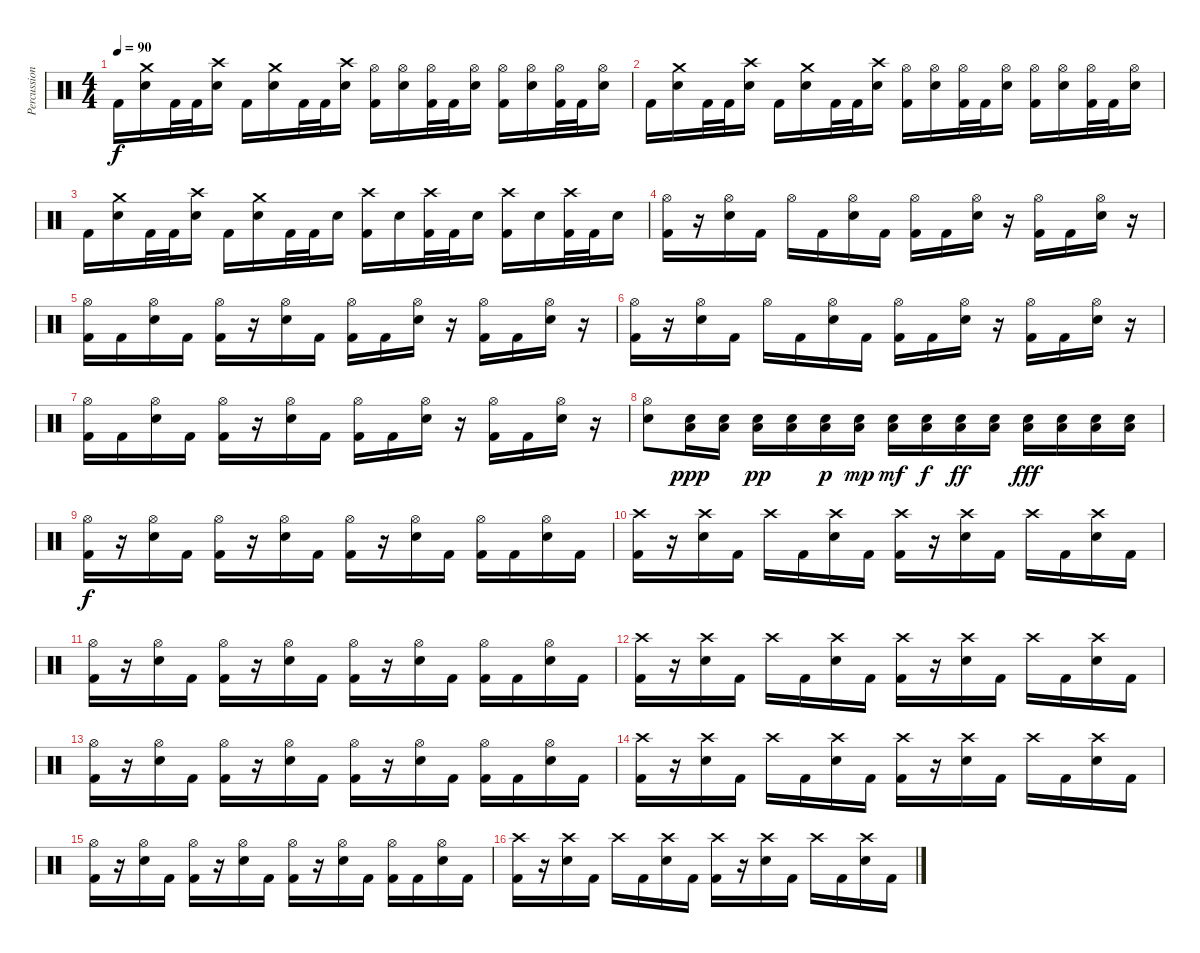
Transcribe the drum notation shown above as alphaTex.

\track ("Percussion" "Percussion") {instrument percussion}
\staff {score}
\articulation defaults
\ts (4 4)
\tempo 90
\clef neutral
\ks c "Kick (hit) 2".16{dy f}
("Crash medium (hit)" "Snare (hit) 2").16 "Kick (hit) 2".32 "Kick (hit) 2".32 ("Crash high (hit)" "Snare (hit) 2").16 "Kick (hit) 2".16 ("Crash medium (hit)" "Snare (hit) 2").16 "Kick (hit) 2".32 "Kick (hit) 2".32 ("Crash high (hit)" "Snare (hit) 2").16 ("Hi-Hat (open)" "Kick (hit) 2").16 ("Hi-Hat (open)" "Snare (hit) 2").16 ("Hi-Hat (open)" "Kick (hit) 2").32 "Kick (hit) 2".32 ("Hi-Hat (open)" "Snare (hit) 2").16 ("Hi-Hat (open)" "Kick (hit) 2").16 ("Hi-Hat (open)" "Snare (hit) 2").16 ("Hi-Hat (open)" "Kick (hit) 2").32 "Kick (hit) 2".32 ("Hi-Hat (open)" "Snare (hit) 2").16 |
"Kick (hit) 2".16 ("Crash medium (hit)" "Snare (hit) 2").16 "Kick (hit) 2".32 "Kick (hit) 2".32 ("Crash high (hit)" "Snare (hit) 2").16 "Kick (hit) 2".16 ("Crash medium (hit)" "Snare (hit) 2").16 "Kick (hit) 2".32 "Kick (hit) 2".32 ("Crash high (hit)" "Snare (hit) 2").16 ("Hi-Hat (open)" "Kick (hit) 2").16 ("Hi-Hat (open)" "Snare (hit) 2").16 ("Hi-Hat (open)" "Kick (hit) 2").32 "Kick (hit) 2".32 ("Hi-Hat (open)" "Snare (hit) 2").16 ("Hi-Hat (open)" "Kick (hit) 2").16 ("Hi-Hat (open)" "Snare (hit) 2").16 ("Hi-Hat (open)" "Kick (hit) 2").32 "Kick (hit) 2".32 ("Hi-Hat (open)" "Snare (hit) 2").16 |
"Kick (hit) 2".16 ("Crash medium (hit)" "Snare (hit) 2").16 "Kick (hit) 2".32 "Kick (hit) 2".32 ("Crash high (hit)" "Snare (hit) 2").16 "Kick (hit) 2".16 ("Crash medium (hit)" "Snare (hit) 2").16 "Kick (hit) 2".32 "Kick (hit) 2".32 "Snare (hit) 2".16 ("Crash high (hit)" "Kick (hit) 2").16 "Snare (hit) 2".16 ("Crash high (hit)" "Kick (hit) 2").32 "Kick (hit) 2".32 "Snare (hit) 2".16 ("Crash high (hit)" "Kick (hit) 2").16 "Snare (hit) 2".16 ("Crash high (hit)" "Kick (hit) 2").32 "Kick (hit) 2".32 "Snare (hit) 2".16 |
("Hi-Hat (open)" "Kick (hit) 2").16 r.16 ("Hi-Hat (open)" "Snare (hit) 2").16 "Kick (hit) 2".16 "Hi-Hat (open)".16 "Kick (hit) 2".16 ("Hi-Hat (open)" "Snare (hit) 2").16 "Kick (hit) 2".16 ("Hi-Hat (open)" "Kick (hit) 2").16 "Kick (hit) 2".16 ("Hi-Hat (open)" "Snare (hit) 2").16 r.16 ("Hi-Hat (open)" "Kick (hit) 2").16 "Kick (hit) 2".16 ("Hi-Hat (open)" "Snare (hit) 2").16 r.16 |
("Hi-Hat (open)" "Kick (hit) 2").16 "Kick (hit) 2".16 ("Hi-Hat (open)" "Snare (hit) 2").16 "Kick (hit) 2".16 ("Hi-Hat (open)" "Kick (hit) 2").16 r.16 ("Hi-Hat (open)" "Snare (hit) 2").16 "Kick (hit) 2".16 ("Hi-Hat (open)" "Kick (hit) 2").16 "Kick (hit) 2".16 ("Hi-Hat (open)" "Snare (hit) 2").16 r.16 ("Hi-Hat (open)" "Kick (hit) 2").16 "Kick (hit) 2".16 ("Hi-Hat (open)" "Snare (hit) 2").16 r.16 |
("Hi-Hat (open)" "Kick (hit) 2").16 r.16 ("Hi-Hat (open)" "Snare (hit) 2").16 "Kick (hit) 2".16 "Hi-Hat (open)".16 "Kick (hit) 2".16 ("Hi-Hat (open)" "Snare (hit) 2").16 "Kick (hit) 2".16 ("Hi-Hat (open)" "Kick (hit) 2").16 "Kick (hit) 2".16 ("Hi-Hat (open)" "Snare (hit) 2").16 r.16 ("Hi-Hat (open)" "Kick (hit) 2").16 "Kick (hit) 2".16 ("Hi-Hat (open)" "Snare (hit) 2").16 r.16 |
("Hi-Hat (open)" "Kick (hit) 2").16 "Kick (hit) 2".16 ("Hi-Hat (open)" "Snare (hit) 2").16 "Kick (hit) 2".16 ("Hi-Hat (open)" "Kick (hit) 2").16 r.16 ("Hi-Hat (open)" "Snare (hit) 2").16 "Kick (hit) 2".16 ("Hi-Hat (open)" "Kick (hit) 2").16 "Kick (hit) 2".16 ("Hi-Hat (open)" "Snare (hit) 2").16 r.16 ("Hi-Hat (open)" "Kick (hit) 2").16 "Kick (hit) 2".16 ("Hi-Hat (open)" "Snare (hit) 2").16 r.16 |
("Snare (hit) 2" "Hi-Hat (open)").8 ("Low Floor Tom (hit)" "Snare (hit) 2").16{dy ppp} ("Low Floor Tom (hit)" "Snare (hit) 2").16 ("Low Floor Tom (hit)" "Snare (hit) 2").16{dy pp} ("Low Floor Tom (hit)" "Snare (hit) 2").16 ("Low Floor Tom (hit)" "Snare (hit) 2").16{dy p} ("Low Floor Tom (hit)" "Snare (hit) 2").16{dy mp} ("Low Floor Tom (hit)" "Snare (hit) 2").16{dy mf} ("Low Floor Tom (hit)" "Snare (hit) 2").16{dy f} ("Low Floor Tom (hit)" "Snare (hit) 2").16{dy ff} ("Low Floor Tom (hit)" "Snare (hit) 2").16 ("Low Floor Tom (hit)" "Snare (hit) 2").16{dy fff} ("Low Floor Tom (hit)" "Snare (hit) 2").16 ("Low Floor Tom (hit)" "Snare (hit) 2").16 ("Low Floor Tom (hit)" "Snare (hit) 2").16 |
("Hi-Hat (open)" "Kick (hit) 2").16{dy f} r.16 ("Hi-Hat (open)" "Snare (hit) 2").16 "Kick (hit) 2".16 ("Hi-Hat (open)" "Kick (hit) 2").16 r.16 ("Hi-Hat (open)" "Snare (hit) 2").16 "Kick (hit) 2".16 ("Hi-Hat (open)" "Kick (hit) 2").16 r.16 ("Hi-Hat (open)" "Snare (hit) 2").16 "Kick (hit) 2".16 ("Hi-Hat (open)" "Kick (hit) 2").16 "Kick (hit) 2".16 ("Hi-Hat (open)" "Snare (hit) 2").16 "Kick (hit) 2".16 |
("Crash high (hit)" "Kick (hit) 2").16 r.16 ("Crash high (hit)" "Snare (hit) 2").16 "Kick (hit) 2".16 "Crash high (hit)".16 "Kick (hit) 2".16 ("Crash high (hit)" "Snare (hit) 2").16 "Kick (hit) 2".16 ("Crash high (hit)" "Kick (hit) 2").16 r.16 ("Crash high (hit)" "Snare (hit) 2").16 "Kick (hit) 2".16 "Crash high (hit)".16 "Kick (hit) 2".16 ("Crash high (hit)" "Snare (hit) 2").16 "Kick (hit) 2".16 |
("Hi-Hat (open)" "Kick (hit) 2").16 r.16 ("Hi-Hat (open)" "Snare (hit) 2").16 "Kick (hit) 2".16 ("Hi-Hat (open)" "Kick (hit) 2").16 r.16 ("Hi-Hat (open)" "Snare (hit) 2").16 "Kick (hit) 2".16 ("Hi-Hat (open)" "Kick (hit) 2").16 r.16 ("Hi-Hat (open)" "Snare (hit) 2").16 "Kick (hit) 2".16 ("Hi-Hat (open)" "Kick (hit) 2").16 "Kick (hit) 2".16 ("Hi-Hat (open)" "Snare (hit) 2").16 "Kick (hit) 2".16 |
("Crash high (hit)" "Kick (hit) 2").16 r.16 ("Crash high (hit)" "Snare (hit) 2").16 "Kick (hit) 2".16 "Crash high (hit)".16 "Kick (hit) 2".16 ("Crash high (hit)" "Snare (hit) 2").16 "Kick (hit) 2".16 ("Crash high (hit)" "Kick (hit) 2").16 r.16 ("Crash high (hit)" "Snare (hit) 2").16 "Kick (hit) 2".16 "Crash high (hit)".16 "Kick (hit) 2".16 ("Crash high (hit)" "Snare (hit) 2").16 "Kick (hit) 2".16 |
("Hi-Hat (open)" "Kick (hit) 2").16 r.16 ("Hi-Hat (open)" "Snare (hit) 2").16 "Kick (hit) 2".16 ("Hi-Hat (open)" "Kick (hit) 2").16 r.16 ("Hi-Hat (open)" "Snare (hit) 2").16 "Kick (hit) 2".16 ("Hi-Hat (open)" "Kick (hit) 2").16 r.16 ("Hi-Hat (open)" "Snare (hit) 2").16 "Kick (hit) 2".16 ("Hi-Hat (open)" "Kick (hit) 2").16 "Kick (hit) 2".16 ("Hi-Hat (open)" "Snare (hit) 2").16 "Kick (hit) 2".16 |
("Crash high (hit)" "Kick (hit) 2").16 r.16 ("Crash high (hit)" "Snare (hit) 2").16 "Kick (hit) 2".16 "Crash high (hit)".16 "Kick (hit) 2".16 ("Crash high (hit)" "Snare (hit) 2").16 "Kick (hit) 2".16 ("Crash high (hit)" "Kick (hit) 2").16 r.16 ("Crash high (hit)" "Snare (hit) 2").16 "Kick (hit) 2".16 "Crash high (hit)".16 "Kick (hit) 2".16 ("Crash high (hit)" "Snare (hit) 2").16 "Kick (hit) 2".16 |
("Hi-Hat (open)" "Kick (hit) 2").16 r.16 ("Hi-Hat (open)" "Snare (hit) 2").16 "Kick (hit) 2".16 ("Hi-Hat (open)" "Kick (hit) 2").16 r.16 ("Hi-Hat (open)" "Snare (hit) 2").16 "Kick (hit) 2".16 ("Hi-Hat (open)" "Kick (hit) 2").16 r.16 ("Hi-Hat (open)" "Snare (hit) 2").16 "Kick (hit) 2".16 ("Hi-Hat (open)" "Kick (hit) 2").16 "Kick (hit) 2".16 ("Hi-Hat (open)" "Snare (hit) 2").16 "Kick (hit) 2".16 |
("Crash high (hit)" "Kick (hit) 2").16 r.16 ("Crash high (hit)" "Snare (hit) 2").16 "Kick (hit) 2".16 "Crash high (hit)".16 "Kick (hit) 2".16 ("Crash high (hit)" "Snare (hit) 2").16 "Kick (hit) 2".16 ("Crash high (hit)" "Kick (hit) 2").16 r.16 ("Crash high (hit)" "Snare (hit) 2").16 "Kick (hit) 2".16 "Crash high (hit)".16 "Kick (hit) 2".16 ("Crash high (hit)" "Snare (hit) 2").16 "Kick (hit) 2".16
